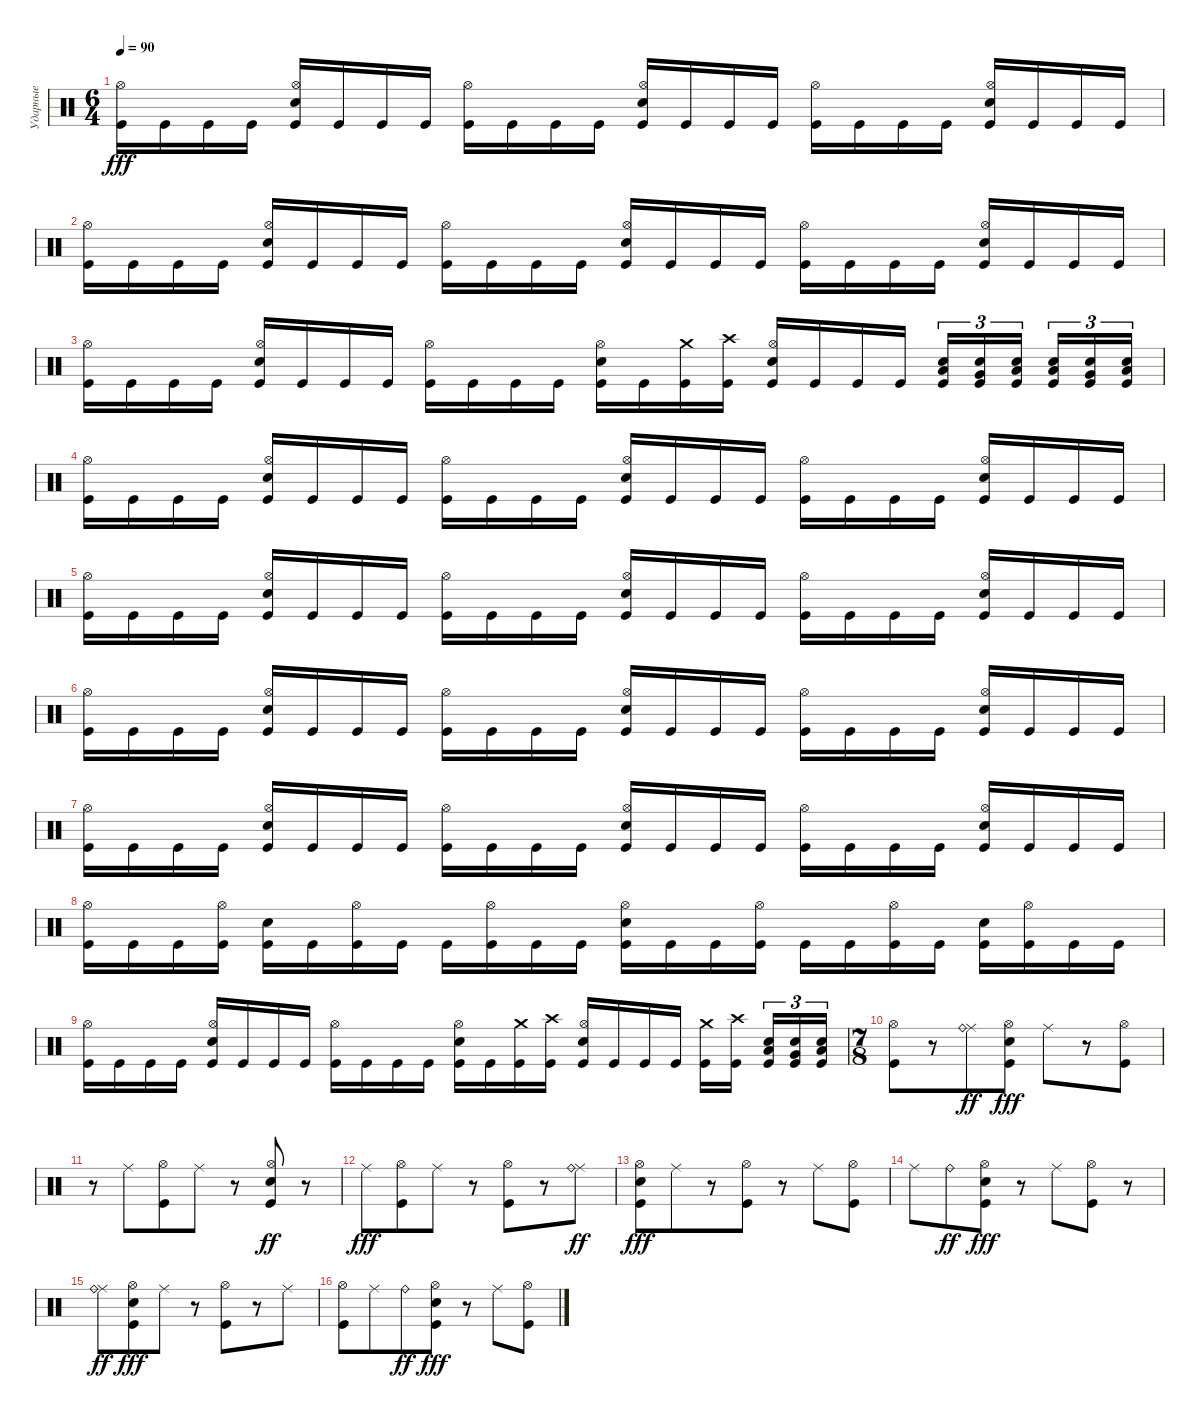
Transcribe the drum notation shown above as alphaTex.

\track ("Ударные" "Ударные") {instrument percussion}
\staff {score}
\articulation defaults
\ts (6 4)
\tempo 90
\clef neutral
\ks c
("Kick (hit)" "Hi-Hat (open)").16{dy fff} "Kick (hit)".16 "Kick (hit)".16 "Kick (hit)".16 ("Kick (hit)" "Snare (hit) 2" "Hi-Hat (open)").16 "Kick (hit)".16 "Kick (hit)".16 "Kick (hit)".16 ("Kick (hit)" "Hi-Hat (open)").16 "Kick (hit)".16 "Kick (hit)".16 "Kick (hit)".16 ("Kick (hit)" "Snare (hit) 2" "Hi-Hat (open)").16 "Kick (hit)".16 "Kick (hit)".16 "Kick (hit)".16 ("Kick (hit)" "Hi-Hat (open)").16 "Kick (hit)".16 "Kick (hit)".16 "Kick (hit)".16 ("Kick (hit)" "Snare (hit) 2" "Hi-Hat (open)").16 "Kick (hit)".16 "Kick (hit)".16 "Kick (hit)".16 |
("Kick (hit)" "Hi-Hat (open)").16 "Kick (hit)".16 "Kick (hit)".16 "Kick (hit)".16 ("Kick (hit)" "Snare (hit) 2" "Hi-Hat (open)").16 "Kick (hit)".16 "Kick (hit)".16 "Kick (hit)".16 ("Kick (hit)" "Hi-Hat (open)").16 "Kick (hit)".16 "Kick (hit)".16 "Kick (hit)".16 ("Kick (hit)" "Snare (hit) 2" "Hi-Hat (open)").16 "Kick (hit)".16 "Kick (hit)".16 "Kick (hit)".16 ("Kick (hit)" "Hi-Hat (open)").16 "Kick (hit)".16 "Kick (hit)".16 "Kick (hit)".16 ("Kick (hit)" "Snare (hit) 2" "Hi-Hat (open)").16 "Kick (hit)".16 "Kick (hit)".16 "Kick (hit)".16 |
("Kick (hit)" "Hi-Hat (open)").16 "Kick (hit)".16 "Kick (hit)".16 "Kick (hit)".16 ("Kick (hit)" "Snare (hit) 2" "Hi-Hat (open)").16 "Kick (hit)".16 "Kick (hit)".16 "Kick (hit)".16 ("Kick (hit)" "Hi-Hat (open)").16 "Kick (hit)".16 "Kick (hit)".16 "Kick (hit)".16 ("Kick (hit)" "Snare (hit) 2" "Hi-Hat (open)").16 "Kick (hit)".16 ("Kick (hit)" "Crash medium (hit)").16 ("Kick (hit)" "Crash high (hit)").16 ("Kick (hit)" "Snare (hit) 2" "Hi-Hat (open)").16 "Kick (hit)".16 "Kick (hit)".16 "Kick (hit)".16{beam splitsecondary} ("Kick (hit)" "Low Tom (hit)" "Snare (hit) 2").16{tu (3 2)} ("Kick (hit)" "Very Low Tom (hit)" "Snare (hit) 2").16{tu (3 2)} ("Kick (hit)" "Low Floor Tom (hit)" "Snare (hit) 2").16{tu (3 2) beam splitsecondary} ("Kick (hit)" "Low Tom (hit)" "Snare (hit) 2").16{tu (3 2)} ("Kick (hit)" "Very Low Tom (hit)" "Snare (hit) 2").16{tu (3 2)} ("Kick (hit)" "Low Floor Tom (hit)" "Snare (hit) 2").16{tu (3 2)} |
("Kick (hit)" "Hi-Hat (open)").16 "Kick (hit)".16 "Kick (hit)".16 "Kick (hit)".16 ("Kick (hit)" "Snare (hit) 2" "Hi-Hat (open)").16 "Kick (hit)".16 "Kick (hit)".16 "Kick (hit)".16 ("Kick (hit)" "Hi-Hat (open)").16 "Kick (hit)".16 "Kick (hit)".16 "Kick (hit)".16 ("Kick (hit)" "Snare (hit) 2" "Hi-Hat (open)").16 "Kick (hit)".16 "Kick (hit)".16 "Kick (hit)".16 ("Kick (hit)" "Hi-Hat (open)").16 "Kick (hit)".16 "Kick (hit)".16 "Kick (hit)".16 ("Kick (hit)" "Snare (hit) 2" "Hi-Hat (open)").16 "Kick (hit)".16 "Kick (hit)".16 "Kick (hit)".16 |
("Kick (hit)" "Hi-Hat (open)").16 "Kick (hit)".16 "Kick (hit)".16 "Kick (hit)".16 ("Kick (hit)" "Snare (hit) 2" "Hi-Hat (open)").16 "Kick (hit)".16 "Kick (hit)".16 "Kick (hit)".16 ("Kick (hit)" "Hi-Hat (open)").16 "Kick (hit)".16 "Kick (hit)".16 "Kick (hit)".16 ("Kick (hit)" "Snare (hit) 2" "Hi-Hat (open)").16 "Kick (hit)".16 "Kick (hit)".16 "Kick (hit)".16 ("Kick (hit)" "Hi-Hat (open)").16 "Kick (hit)".16 "Kick (hit)".16 "Kick (hit)".16 ("Kick (hit)" "Snare (hit) 2" "Hi-Hat (open)").16 "Kick (hit)".16 "Kick (hit)".16 "Kick (hit)".16 |
("Kick (hit)" "Hi-Hat (open)").16 "Kick (hit)".16 "Kick (hit)".16 "Kick (hit)".16 ("Kick (hit)" "Snare (hit) 2" "Hi-Hat (open)").16 "Kick (hit)".16 "Kick (hit)".16 "Kick (hit)".16 ("Kick (hit)" "Hi-Hat (open)").16 "Kick (hit)".16 "Kick (hit)".16 "Kick (hit)".16 ("Kick (hit)" "Snare (hit) 2" "Hi-Hat (open)").16 "Kick (hit)".16 "Kick (hit)".16 "Kick (hit)".16 ("Kick (hit)" "Hi-Hat (open)").16 "Kick (hit)".16 "Kick (hit)".16 "Kick (hit)".16 ("Kick (hit)" "Snare (hit) 2" "Hi-Hat (open)").16 "Kick (hit)".16 "Kick (hit)".16 "Kick (hit)".16 |
("Kick (hit)" "Hi-Hat (open)").16 "Kick (hit)".16 "Kick (hit)".16 "Kick (hit)".16 ("Kick (hit)" "Snare (hit) 2" "Hi-Hat (open)").16 "Kick (hit)".16 "Kick (hit)".16 "Kick (hit)".16 ("Kick (hit)" "Hi-Hat (open)").16 "Kick (hit)".16 "Kick (hit)".16 "Kick (hit)".16 ("Kick (hit)" "Snare (hit) 2" "Hi-Hat (open)").16 "Kick (hit)".16 "Kick (hit)".16 "Kick (hit)".16 ("Kick (hit)" "Hi-Hat (open)").16 "Kick (hit)".16 "Kick (hit)".16 "Kick (hit)".16 ("Kick (hit)" "Snare (hit) 2" "Hi-Hat (open)").16 "Kick (hit)".16 "Kick (hit)".16 "Kick (hit)".16 |
("Kick (hit)" "Hi-Hat (open)").16 "Kick (hit)".16 "Kick (hit)".16 ("Kick (hit)" "Hi-Hat (open)").16 ("Kick (hit)" "Snare (hit) 2").16 "Kick (hit)".16 ("Kick (hit)" "Hi-Hat (open)").16 "Kick (hit)".16 "Kick (hit)".16 ("Kick (hit)" "Hi-Hat (open)").16 "Kick (hit)".16 "Kick (hit)".16 ("Kick (hit)" "Snare (hit) 2" "Hi-Hat (open)").16 "Kick (hit)".16 "Kick (hit)".16 ("Kick (hit)" "Hi-Hat (open)").16 "Kick (hit)".16 "Kick (hit)".16 ("Kick (hit)" "Hi-Hat (open)").16 "Kick (hit)".16 ("Kick (hit)" "Snare (hit) 2").16 ("Kick (hit)" "Hi-Hat (open)").16 "Kick (hit)".16 "Kick (hit)".16 |
("Kick (hit)" "Hi-Hat (open)").16 "Kick (hit)".16 "Kick (hit)".16 "Kick (hit)".16 ("Kick (hit)" "Snare (hit) 2" "Hi-Hat (open)").16 "Kick (hit)".16 "Kick (hit)".16 "Kick (hit)".16 ("Kick (hit)" "Hi-Hat (open)").16 "Kick (hit)".16 "Kick (hit)".16 "Kick (hit)".16 ("Kick (hit)" "Snare (hit) 2" "Hi-Hat (open)").16 "Kick (hit)".16 ("Kick (hit)" "Crash medium (hit)").16 ("Kick (hit)" "Crash high (hit)").16 ("Kick (hit)" "Snare (hit) 2" "Hi-Hat (open)").16 "Kick (hit)".16 "Kick (hit)".16 "Kick (hit)".16 ("Kick (hit)" "Crash medium (hit)").16 ("Kick (hit)" "Crash high (hit)").16{beam splitsecondary} ("Kick (hit)" "Low Tom (hit)" "Snare (hit) 2").16{tu (3 2)} ("Kick (hit)" "Very Low Tom (hit)" "Snare (hit) 2").16{tu (3 2)} ("Kick (hit)" "Low Floor Tom (hit)" "Snare (hit) 2").16{tu (3 2)} |
\ts (7 8)
("Kick (hit)" "Hi-Hat (open)").8 r.8 ("Ride (middle)" "Ride (bell)").8{dy ff} ("Kick (hit)" "Hi-Hat (open)" "Snare (hit) 2").8{dy fff} "Ride (middle)".8 r.8 ("Kick (hit)" "Hi-Hat (open)").8 |
r.8 "Ride (middle)".8 ("Kick (hit)" "Hi-Hat (open)").8 "Ride (middle)".8 r.8 ("Kick (hit)" "Hi-Hat (open)" "Snare (hit) 2").8{dy ff} r.8 |
"Ride (middle)".8{dy fff} ("Kick (hit)" "Hi-Hat (open)").8 "Ride (middle)".8 r.8 ("Kick (hit)" "Hi-Hat (open)").8 r.8 ("Ride (middle)" "Ride (bell)").8{dy ff} |
("Kick (hit)" "Hi-Hat (open)" "Snare (hit) 2").8{dy fff} "Ride (middle)".8 r.8 ("Kick (hit)" "Hi-Hat (open)").8 r.8 "Ride (middle)".8 ("Kick (hit)" "Hi-Hat (open)").8 |
"Ride (middle)".8 "Ride (bell)".8{dy ff} ("Kick (hit)" "Hi-Hat (open)" "Snare (hit) 2").8{dy fff} r.8 "Ride (middle)".8 ("Kick (hit)" "Hi-Hat (open)").8 r.8 |
("Ride (middle)" "Ride (bell)").8{dy ff} ("Kick (hit)" "Hi-Hat (open)" "Snare (hit) 2").8{dy fff} "Ride (middle)".8 r.8 ("Kick (hit)" "Hi-Hat (open)").8 r.8 "Ride (middle)".8 |
("Kick (hit)" "Hi-Hat (open)").8 "Ride (middle)".8 "Ride (bell)".8{dy ff} ("Kick (hit)" "Hi-Hat (open)" "Snare (hit) 2").8{dy fff} r.8 "Ride (middle)".8 ("Kick (hit)" "Hi-Hat (open)").8
